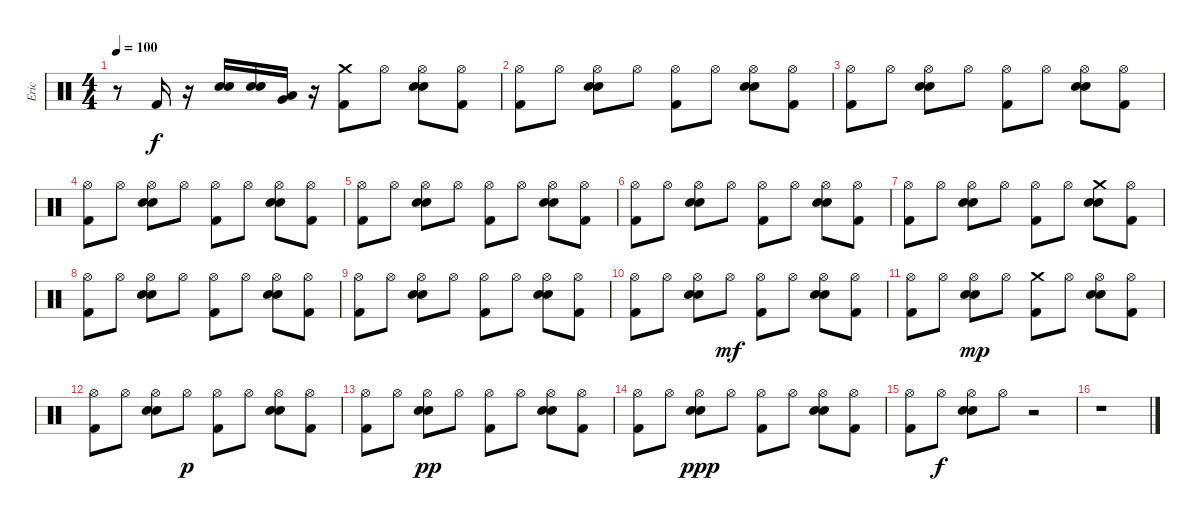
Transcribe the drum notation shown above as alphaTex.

\track ("Eric" "Eric") {instrument percussion}
\staff {score}
\articulation defaults
\ts (4 4)
\tempo 100
\clef neutral
\ks c
r.8{dy f} "Kick (hit) 2".16 r.16 ("Snare (hit) 2" "Electric Snare (hit)").16 ("Snare (hit) 2" "Electric Snare (hit)").16 ("Very Low Tom (hit)" "Low Floor Tom (hit)").16 r.16 ("Crash medium (hit)" "Kick (hit) 2").8 "Hi-Hat (open)".8 ("Hi-Hat (open)" "Electric Snare (hit)" "Snare (hit) 2").8 ("Hi-Hat (open)" "Kick (hit) 2").8 |
("Hi-Hat (open)" "Kick (hit) 2").8 "Hi-Hat (open)".8 ("Hi-Hat (open)" "Electric Snare (hit)" "Snare (hit) 2").8 "Hi-Hat (open)".8 ("Hi-Hat (open)" "Kick (hit) 2").8 "Hi-Hat (open)".8 ("Hi-Hat (open)" "Electric Snare (hit)" "Snare (hit) 2").8 ("Hi-Hat (open)" "Kick (hit) 2").8 |
("Hi-Hat (open)" "Kick (hit) 2").8 "Hi-Hat (open)".8 ("Hi-Hat (open)" "Electric Snare (hit)" "Snare (hit) 2").8 "Hi-Hat (open)".8 ("Hi-Hat (open)" "Kick (hit) 2").8 "Hi-Hat (open)".8 ("Hi-Hat (open)" "Electric Snare (hit)" "Snare (hit) 2").8 ("Hi-Hat (open)" "Kick (hit) 2").8 |
("Hi-Hat (open)" "Kick (hit) 2").8 "Hi-Hat (open)".8 ("Hi-Hat (open)" "Electric Snare (hit)" "Snare (hit) 2").8 "Hi-Hat (open)".8 ("Hi-Hat (open)" "Kick (hit) 2").8 "Hi-Hat (open)".8 ("Hi-Hat (open)" "Electric Snare (hit)" "Snare (hit) 2").8 ("Hi-Hat (open)" "Kick (hit) 2").8 |
("Hi-Hat (open)" "Kick (hit) 2").8 "Hi-Hat (open)".8 ("Hi-Hat (open)" "Electric Snare (hit)" "Snare (hit) 2").8 "Hi-Hat (open)".8 ("Hi-Hat (open)" "Kick (hit) 2").8 "Hi-Hat (open)".8 ("Hi-Hat (open)" "Electric Snare (hit)" "Snare (hit) 2").8 ("Hi-Hat (open)" "Kick (hit) 2").8 |
("Hi-Hat (open)" "Kick (hit) 2").8 "Hi-Hat (open)".8 ("Hi-Hat (open)" "Electric Snare (hit)" "Snare (hit) 2").8 "Hi-Hat (open)".8 ("Hi-Hat (open)" "Kick (hit) 2").8 "Hi-Hat (open)".8 ("Hi-Hat (open)" "Electric Snare (hit)" "Snare (hit) 2").8 ("Hi-Hat (open)" "Kick (hit) 2").8 |
("Hi-Hat (open)" "Kick (hit) 2").8 "Hi-Hat (open)".8 ("Hi-Hat (open)" "Electric Snare (hit)" "Snare (hit) 2").8 "Hi-Hat (open)".8 ("Hi-Hat (open)" "Kick (hit) 2").8 "Hi-Hat (open)".8 ("Crash medium (hit)" "Electric Snare (hit)" "Snare (hit) 2").8 ("Hi-Hat (open)" "Kick (hit) 2").8 |
("Hi-Hat (open)" "Kick (hit) 2").8 "Hi-Hat (open)".8 ("Hi-Hat (open)" "Electric Snare (hit)" "Snare (hit) 2").8 "Hi-Hat (open)".8 ("Hi-Hat (open)" "Kick (hit) 2").8 "Hi-Hat (open)".8 ("Hi-Hat (open)" "Electric Snare (hit)" "Snare (hit) 2").8 ("Hi-Hat (open)" "Kick (hit) 2").8 |
("Hi-Hat (open)" "Kick (hit) 2").8 "Hi-Hat (open)".8 ("Hi-Hat (open)" "Electric Snare (hit)" "Snare (hit) 2").8 "Hi-Hat (open)".8 ("Hi-Hat (open)" "Kick (hit) 2").8 "Hi-Hat (open)".8 ("Hi-Hat (open)" "Electric Snare (hit)" "Snare (hit) 2").8 ("Hi-Hat (open)" "Kick (hit) 2").8 |
("Hi-Hat (open)" "Kick (hit) 2").8 "Hi-Hat (open)".8 ("Hi-Hat (open)" "Electric Snare (hit)" "Snare (hit) 2").8 "Hi-Hat (open)".8{dy mf} ("Hi-Hat (open)" "Kick (hit) 2").8 "Hi-Hat (open)".8 ("Hi-Hat (open)" "Electric Snare (hit)" "Snare (hit) 2").8 ("Hi-Hat (open)" "Kick (hit) 2").8 |
("Hi-Hat (open)" "Kick (hit) 2").8 "Hi-Hat (open)".8 ("Hi-Hat (open)" "Electric Snare (hit)" "Snare (hit) 2").8{dy mp} "Hi-Hat (open)".8 ("Crash medium (hit)" "Kick (hit) 2").8 "Hi-Hat (open)".8 ("Hi-Hat (open)" "Electric Snare (hit)" "Snare (hit) 2").8 ("Hi-Hat (open)" "Kick (hit) 2").8 |
("Hi-Hat (open)" "Kick (hit) 2").8 "Hi-Hat (open)".8 ("Hi-Hat (open)" "Electric Snare (hit)" "Snare (hit) 2").8 "Hi-Hat (open)".8{dy p} ("Hi-Hat (open)" "Kick (hit) 2").8 "Hi-Hat (open)".8 ("Hi-Hat (open)" "Electric Snare (hit)" "Snare (hit) 2").8 ("Hi-Hat (open)" "Kick (hit) 2").8 |
("Hi-Hat (open)" "Kick (hit) 2").8 "Hi-Hat (open)".8 ("Hi-Hat (open)" "Electric Snare (hit)" "Snare (hit) 2").8{dy pp} "Hi-Hat (open)".8 ("Hi-Hat (open)" "Kick (hit) 2").8 "Hi-Hat (open)".8 ("Hi-Hat (open)" "Electric Snare (hit)" "Snare (hit) 2").8 ("Hi-Hat (open)" "Kick (hit) 2").8 |
("Hi-Hat (open)" "Kick (hit) 2").8 "Hi-Hat (open)".8 ("Hi-Hat (open)" "Electric Snare (hit)" "Snare (hit) 2").8{dy ppp} "Hi-Hat (open)".8 ("Hi-Hat (open)" "Kick (hit) 2").8 "Hi-Hat (open)".8 ("Hi-Hat (open)" "Electric Snare (hit)" "Snare (hit) 2").8 ("Hi-Hat (open)" "Kick (hit) 2").8 |
("Hi-Hat (open)" "Kick (hit) 2").8 "Hi-Hat (open)".8{dy f} ("Hi-Hat (open)" "Electric Snare (hit)" "Snare (hit) 2").8 "Hi-Hat (open)".8 r.2 |
r.1
